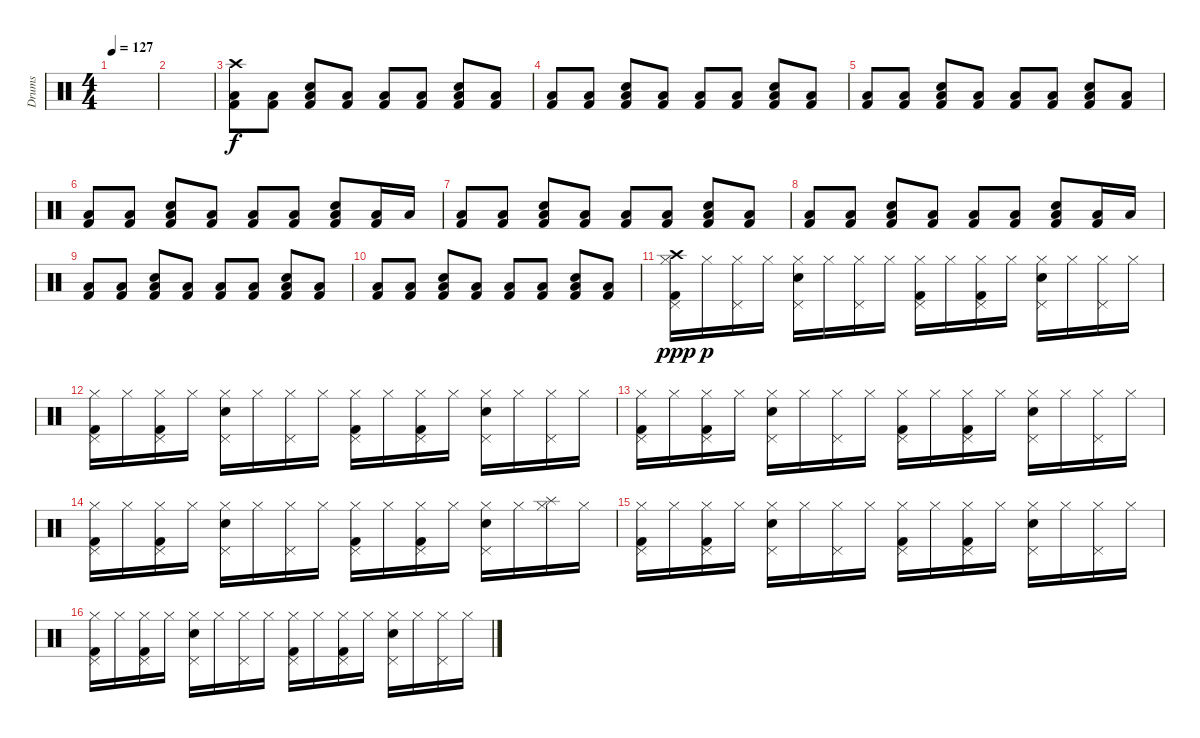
\track ("Drums" "Drums") {instrument percussion}
\staff {score}
\articulation defaults
\ts (4 4)
\tempo 127
\clef neutral
\ks c
|
|
("Crash high (hit)" "Low Floor Tom (hit)" "Kick (hit) 2").8 ("Low Floor Tom (hit)" "Kick (hit) 2").8 ("Electric Snare (hit)" "Low Floor Tom (hit)" "Kick (hit) 2").8 ("Low Floor Tom (hit)" "Kick (hit) 2").8 ("Low Floor Tom (hit)" "Kick (hit) 2").8 ("Low Floor Tom (hit)" "Kick (hit) 2").8 ("Electric Snare (hit)" "Low Floor Tom (hit)" "Kick (hit) 2").8 ("Low Floor Tom (hit)" "Kick (hit) 2").8 |
("Low Floor Tom (hit)" "Kick (hit) 2").8 ("Low Floor Tom (hit)" "Kick (hit) 2").8 ("Electric Snare (hit)" "Low Floor Tom (hit)" "Kick (hit) 2").8 ("Low Floor Tom (hit)" "Kick (hit) 2").8 ("Low Floor Tom (hit)" "Kick (hit) 2").8 ("Low Floor Tom (hit)" "Kick (hit) 2").8 ("Electric Snare (hit)" "Low Floor Tom (hit)" "Kick (hit) 2").8 ("Low Floor Tom (hit)" "Kick (hit) 2").8 |
("Low Floor Tom (hit)" "Kick (hit) 2").8 ("Low Floor Tom (hit)" "Kick (hit) 2").8 ("Electric Snare (hit)" "Low Floor Tom (hit)" "Kick (hit) 2").8 ("Low Floor Tom (hit)" "Kick (hit) 2").8 ("Low Floor Tom (hit)" "Kick (hit) 2").8 ("Low Floor Tom (hit)" "Kick (hit) 2").8 ("Electric Snare (hit)" "Low Floor Tom (hit)" "Kick (hit) 2").8 ("Low Floor Tom (hit)" "Kick (hit) 2").8 |
("Low Floor Tom (hit)" "Kick (hit) 2").8 ("Low Floor Tom (hit)" "Kick (hit) 2").8 ("Electric Snare (hit)" "Low Floor Tom (hit)" "Kick (hit) 2").8 ("Low Floor Tom (hit)" "Kick (hit) 2").8 ("Low Floor Tom (hit)" "Kick (hit) 2").8 ("Low Floor Tom (hit)" "Kick (hit) 2").8 ("Electric Snare (hit)" "Low Floor Tom (hit)" "Kick (hit) 2").8 ("Low Floor Tom (hit)" "Kick (hit) 2").16 "Low Floor Tom (hit)".16 |
("Low Floor Tom (hit)" "Kick (hit) 2").8 ("Low Floor Tom (hit)" "Kick (hit) 2").8 ("Electric Snare (hit)" "Low Floor Tom (hit)" "Kick (hit) 2").8 ("Low Floor Tom (hit)" "Kick (hit) 2").8 ("Low Floor Tom (hit)" "Kick (hit) 2").8 ("Low Floor Tom (hit)" "Kick (hit) 2").8 ("Electric Snare (hit)" "Low Floor Tom (hit)" "Kick (hit) 2").8 ("Low Floor Tom (hit)" "Kick (hit) 2").8 |
("Low Floor Tom (hit)" "Kick (hit) 2").8 ("Low Floor Tom (hit)" "Kick (hit) 2").8 ("Electric Snare (hit)" "Low Floor Tom (hit)" "Kick (hit) 2").8 ("Low Floor Tom (hit)" "Kick (hit) 2").8 ("Low Floor Tom (hit)" "Kick (hit) 2").8 ("Low Floor Tom (hit)" "Kick (hit) 2").8 ("Electric Snare (hit)" "Low Floor Tom (hit)" "Kick (hit) 2").8 ("Low Floor Tom (hit)" "Kick (hit) 2").16 "Low Floor Tom (hit)".16 |
("Low Floor Tom (hit)" "Kick (hit) 2").8 ("Low Floor Tom (hit)" "Kick (hit) 2").8 ("Electric Snare (hit)" "Low Floor Tom (hit)" "Kick (hit) 2").8 ("Low Floor Tom (hit)" "Kick (hit) 2").8 ("Low Floor Tom (hit)" "Kick (hit) 2").8 ("Low Floor Tom (hit)" "Kick (hit) 2").8 ("Electric Snare (hit)" "Low Floor Tom (hit)" "Kick (hit) 2").8 ("Low Floor Tom (hit)" "Kick (hit) 2").8 |
("Low Floor Tom (hit)" "Kick (hit) 2").8 ("Low Floor Tom (hit)" "Kick (hit) 2").8 ("Electric Snare (hit)" "Low Floor Tom (hit)" "Kick (hit) 2").8 ("Low Floor Tom (hit)" "Kick (hit) 2").8 ("Low Floor Tom (hit)" "Kick (hit) 2").8 ("Low Floor Tom (hit)" "Kick (hit) 2").8 ("Electric Snare (hit)" "Low Floor Tom (hit)" "Kick (hit) 2").8 ("Low Floor Tom (hit)" "Kick (hit) 2").8 |
("Crash high (hit)" "Pedal Hi-Hat (hit)" "Hi-Hat (closed)" "Kick (hit) 2").16{dy ppp} "Hi-Hat (closed)".16{dy p} ("Pedal Hi-Hat (hit)" "Hi-Hat (closed)").16 "Hi-Hat (closed)".16 ("Pedal Hi-Hat (hit)" "Hi-Hat (closed)" "Electric Snare (hit)").16 "Hi-Hat (closed)".16 ("Pedal Hi-Hat (hit)" "Hi-Hat (closed)").16 "Hi-Hat (closed)".16 ("Pedal Hi-Hat (hit)" "Hi-Hat (closed)" "Kick (hit) 2").16 "Hi-Hat (closed)".16 ("Pedal Hi-Hat (hit)" "Hi-Hat (closed)" "Kick (hit) 2").16 "Hi-Hat (closed)".16 ("Pedal Hi-Hat (hit)" "Hi-Hat (closed)" "Electric Snare (hit)").16 "Hi-Hat (closed)".16 ("Pedal Hi-Hat (hit)" "Hi-Hat (closed)").16 "Hi-Hat (closed)".16 |
("Pedal Hi-Hat (hit)" "Hi-Hat (closed)" "Kick (hit) 2").16 "Hi-Hat (closed)".16 ("Pedal Hi-Hat (hit)" "Hi-Hat (closed)" "Kick (hit) 2").16 "Hi-Hat (closed)".16 ("Pedal Hi-Hat (hit)" "Hi-Hat (closed)" "Electric Snare (hit)").16 "Hi-Hat (closed)".16 ("Pedal Hi-Hat (hit)" "Hi-Hat (closed)").16 "Hi-Hat (closed)".16 ("Pedal Hi-Hat (hit)" "Hi-Hat (closed)" "Kick (hit) 2").16 "Hi-Hat (closed)".16 ("Pedal Hi-Hat (hit)" "Hi-Hat (closed)" "Kick (hit) 2").16 "Hi-Hat (closed)".16 ("Pedal Hi-Hat (hit)" "Hi-Hat (closed)" "Electric Snare (hit)").16 "Hi-Hat (closed)".16 ("Pedal Hi-Hat (hit)" "Hi-Hat (closed)").16 "Hi-Hat (closed)".16 |
("Pedal Hi-Hat (hit)" "Hi-Hat (closed)" "Kick (hit) 2").16 "Hi-Hat (closed)".16 ("Pedal Hi-Hat (hit)" "Hi-Hat (closed)" "Kick (hit) 2").16 "Hi-Hat (closed)".16 ("Pedal Hi-Hat (hit)" "Hi-Hat (closed)" "Electric Snare (hit)").16 "Hi-Hat (closed)".16 ("Pedal Hi-Hat (hit)" "Hi-Hat (closed)").16 "Hi-Hat (closed)".16 ("Pedal Hi-Hat (hit)" "Hi-Hat (closed)" "Kick (hit) 2").16 "Hi-Hat (closed)".16 ("Pedal Hi-Hat (hit)" "Hi-Hat (closed)" "Kick (hit) 2").16 "Hi-Hat (closed)".16 ("Pedal Hi-Hat (hit)" "Hi-Hat (closed)" "Electric Snare (hit)").16 "Hi-Hat (closed)".16 ("Pedal Hi-Hat (hit)" "Hi-Hat (closed)").16 "Hi-Hat (closed)".16 |
("Pedal Hi-Hat (hit)" "Hi-Hat (closed)" "Kick (hit) 2").16 "Hi-Hat (closed)".16 ("Pedal Hi-Hat (hit)" "Hi-Hat (closed)" "Kick (hit) 2").16 "Hi-Hat (closed)".16 ("Pedal Hi-Hat (hit)" "Hi-Hat (closed)" "Electric Snare (hit)").16 "Hi-Hat (closed)".16 ("Pedal Hi-Hat (hit)" "Hi-Hat (closed)").16 "Hi-Hat (closed)".16 ("Pedal Hi-Hat (hit)" "Hi-Hat (closed)" "Kick (hit) 2").16 "Hi-Hat (closed)".16 ("Pedal Hi-Hat (hit)" "Hi-Hat (closed)" "Kick (hit) 2").16 "Hi-Hat (closed)".16 ("Pedal Hi-Hat (hit)" "Hi-Hat (closed)" "Electric Snare (hit)").16 "Hi-Hat (closed)".16 ("Splash (hit)" "Hi-Hat (closed)").16 "Hi-Hat (closed)".16 |
("Pedal Hi-Hat (hit)" "Hi-Hat (closed)" "Kick (hit) 2").16 "Hi-Hat (closed)".16 ("Pedal Hi-Hat (hit)" "Hi-Hat (closed)" "Kick (hit) 2").16 "Hi-Hat (closed)".16 ("Pedal Hi-Hat (hit)" "Hi-Hat (closed)" "Electric Snare (hit)").16 "Hi-Hat (closed)".16 ("Pedal Hi-Hat (hit)" "Hi-Hat (closed)").16 "Hi-Hat (closed)".16 ("Pedal Hi-Hat (hit)" "Hi-Hat (closed)" "Kick (hit) 2").16 "Hi-Hat (closed)".16 ("Pedal Hi-Hat (hit)" "Hi-Hat (closed)" "Kick (hit) 2").16 "Hi-Hat (closed)".16 ("Pedal Hi-Hat (hit)" "Hi-Hat (closed)" "Electric Snare (hit)").16 "Hi-Hat (closed)".16 ("Pedal Hi-Hat (hit)" "Hi-Hat (closed)").16 "Hi-Hat (closed)".16 |
("Pedal Hi-Hat (hit)" "Hi-Hat (closed)" "Kick (hit) 2").16 "Hi-Hat (closed)".16 ("Pedal Hi-Hat (hit)" "Hi-Hat (closed)" "Kick (hit) 2").16 "Hi-Hat (closed)".16 ("Pedal Hi-Hat (hit)" "Hi-Hat (closed)" "Electric Snare (hit)").16 "Hi-Hat (closed)".16 ("Pedal Hi-Hat (hit)" "Hi-Hat (closed)").16 "Hi-Hat (closed)".16 ("Pedal Hi-Hat (hit)" "Hi-Hat (closed)" "Kick (hit) 2").16 "Hi-Hat (closed)".16 ("Pedal Hi-Hat (hit)" "Hi-Hat (closed)" "Kick (hit) 2").16 "Hi-Hat (closed)".16 ("Pedal Hi-Hat (hit)" "Hi-Hat (closed)" "Electric Snare (hit)").16 "Hi-Hat (closed)".16 ("Pedal Hi-Hat (hit)" "Hi-Hat (closed)").16 "Hi-Hat (closed)".16
